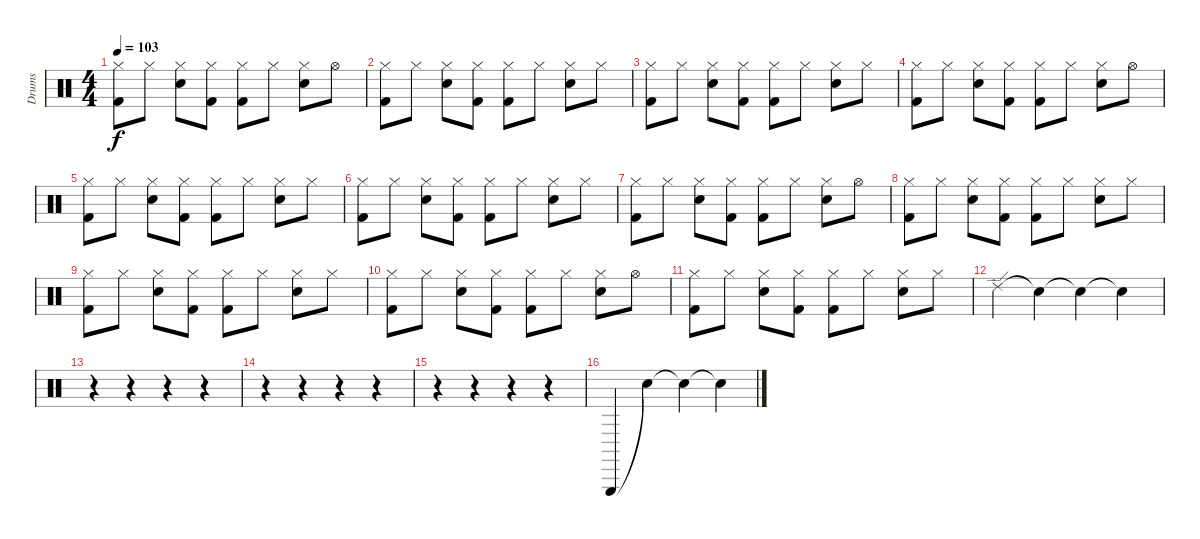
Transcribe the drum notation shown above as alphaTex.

\track ("Drums" "Drums") {instrument percussion}
\staff {score}
\articulation defaults
\ts (4 4)
\tempo 103
\clef neutral
\ks c
("Hi-Hat (closed)" "Kick (hit) 2").8{dy f} "Hi-Hat (closed)".8 ("Hi-Hat (closed)" "Electric Snare (hit)").8 ("Hi-Hat (closed)" "Kick (hit) 2").8 ("Hi-Hat (closed)" "Kick (hit) 2").8 "Hi-Hat (closed)".8 ("Hi-Hat (closed)" "Electric Snare (hit)").8 "Hi-Hat (open)".8 |
("Hi-Hat (closed)" "Kick (hit) 2").8 "Hi-Hat (closed)".8 ("Hi-Hat (closed)" "Electric Snare (hit)").8 ("Hi-Hat (closed)" "Kick (hit) 2").8 ("Hi-Hat (closed)" "Kick (hit) 2").8 "Hi-Hat (closed)".8 ("Hi-Hat (closed)" "Electric Snare (hit)").8 "Hi-Hat (closed)".8 |
("Hi-Hat (closed)" "Kick (hit) 2").8 "Hi-Hat (closed)".8 ("Hi-Hat (closed)" "Electric Snare (hit)").8 ("Hi-Hat (closed)" "Kick (hit) 2").8 ("Hi-Hat (closed)" "Kick (hit) 2").8 "Hi-Hat (closed)".8 ("Hi-Hat (closed)" "Electric Snare (hit)").8 "Hi-Hat (closed)".8 |
("Hi-Hat (closed)" "Kick (hit) 2").8 "Hi-Hat (closed)".8 ("Hi-Hat (closed)" "Electric Snare (hit)").8 ("Hi-Hat (closed)" "Kick (hit) 2").8 ("Hi-Hat (closed)" "Kick (hit) 2").8 "Hi-Hat (closed)".8 ("Hi-Hat (closed)" "Electric Snare (hit)").8 "Hi-Hat (open)".8 |
("Hi-Hat (closed)" "Kick (hit) 2").8 "Hi-Hat (closed)".8 ("Hi-Hat (closed)" "Electric Snare (hit)").8 ("Hi-Hat (closed)" "Kick (hit) 2").8 ("Hi-Hat (closed)" "Kick (hit) 2").8 "Hi-Hat (closed)".8 ("Hi-Hat (closed)" "Electric Snare (hit)").8 "Hi-Hat (closed)".8 |
("Hi-Hat (closed)" "Kick (hit) 2").8 "Hi-Hat (closed)".8 ("Hi-Hat (closed)" "Electric Snare (hit)").8 ("Hi-Hat (closed)" "Kick (hit) 2").8 ("Hi-Hat (closed)" "Kick (hit) 2").8 "Hi-Hat (closed)".8 ("Hi-Hat (closed)" "Electric Snare (hit)").8 "Hi-Hat (closed)".8 |
("Hi-Hat (closed)" "Kick (hit) 2").8 "Hi-Hat (closed)".8 ("Hi-Hat (closed)" "Electric Snare (hit)").8 ("Hi-Hat (closed)" "Kick (hit) 2").8 ("Hi-Hat (closed)" "Kick (hit) 2").8 "Hi-Hat (closed)".8 ("Hi-Hat (closed)" "Electric Snare (hit)").8 "Hi-Hat (open)".8 |
("Hi-Hat (closed)" "Kick (hit) 2").8 "Hi-Hat (closed)".8 ("Hi-Hat (closed)" "Electric Snare (hit)").8 ("Hi-Hat (closed)" "Kick (hit) 2").8 ("Hi-Hat (closed)" "Kick (hit) 2").8 "Hi-Hat (closed)".8 ("Hi-Hat (closed)" "Electric Snare (hit)").8 "Hi-Hat (closed)".8 |
("Hi-Hat (closed)" "Kick (hit) 2").8 "Hi-Hat (closed)".8 ("Hi-Hat (closed)" "Electric Snare (hit)").8 ("Hi-Hat (closed)" "Kick (hit) 2").8 ("Hi-Hat (closed)" "Kick (hit) 2").8 "Hi-Hat (closed)".8 ("Hi-Hat (closed)" "Electric Snare (hit)").8 "Hi-Hat (closed)".8 |
("Hi-Hat (closed)" "Kick (hit) 2").8 "Hi-Hat (closed)".8 ("Hi-Hat (closed)" "Electric Snare (hit)").8 ("Hi-Hat (closed)" "Kick (hit) 2").8 ("Hi-Hat (closed)" "Kick (hit) 2").8 "Hi-Hat (closed)".8 ("Hi-Hat (closed)" "Electric Snare (hit)").8 "Hi-Hat (open)".8 |
("Hi-Hat (closed)" "Kick (hit) 2").8 "Hi-Hat (closed)".8 ("Hi-Hat (closed)" "Electric Snare (hit)").8 ("Hi-Hat (closed)" "Kick (hit) 2").8 ("Hi-Hat (closed)" "Kick (hit) 2").8 "Hi-Hat (closed)".8 ("Hi-Hat (closed)" "Electric Snare (hit)").8 "Hi-Hat (closed)".8 |
"Ride (edge) 2".4 "Snare (hit)"{t}.4 "Snare (hit)"{t}.4 "Snare (hit)"{t}.4 |
r.4 r.4 r.4 r.4 |
r.4 r.4 r.4 r.4 |
r.4 r.4 r.4 r.4 |
"Triangle (hit)".4 "Snare (hit)"{t}.4 "Snare (hit)"{t}.4 "Snare (hit)"{t}.4
